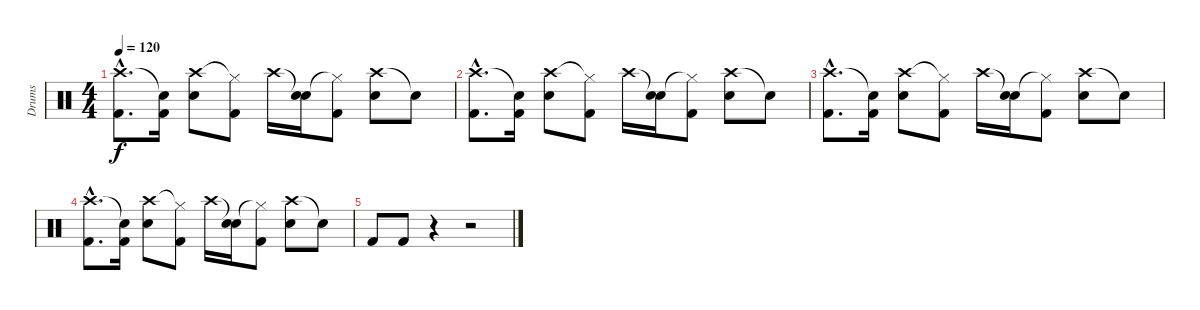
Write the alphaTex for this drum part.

\track ("Drums" "Drums") {instrument percussion}
\staff {score}
\articulation defaults
\ts (4 4)
\tempo 120
\clef neutral
\ks c
("Crash high (hit)"{hac} "Kick (hit) 2"{hac}).8{d dy f} ("Snare (hit)"{t} "Kick (hit) 2").16 ("Crash high (hit)" "Snare (hit) 2").8 ("Hi-Hat (closed)"{t} "Kick (hit) 2").8 "Crash high (hit)".16 ("Snare (hit)"{t} "Snare (hit) 2").16 ("Hi-Hat (closed)"{t} "Kick (hit) 2").8 ("Crash high (hit)" "Snare (hit) 2").8 "Snare (hit)"{t}.8 |
("Crash high (hit)"{hac} "Kick (hit) 2"{hac}).8{d} ("Snare (hit)"{t} "Kick (hit) 2").16 ("Crash high (hit)" "Snare (hit) 2").8 ("Hi-Hat (closed)"{t} "Kick (hit) 2").8 "Crash high (hit)".16 ("Snare (hit)"{t} "Snare (hit) 2").16 ("Hi-Hat (closed)"{t} "Kick (hit) 2").8 ("Crash high (hit)" "Snare (hit) 2").8 "Snare (hit)"{t}.8 |
("Crash high (hit)"{hac} "Kick (hit) 2"{hac}).8{d} ("Snare (hit)"{t} "Kick (hit) 2").16 ("Crash high (hit)" "Snare (hit) 2").8 ("Hi-Hat (closed)"{t} "Kick (hit) 2").8 "Crash high (hit)".16 ("Snare (hit)"{t} "Snare (hit) 2").16 ("Hi-Hat (closed)"{t} "Kick (hit) 2").8 ("Crash high (hit)" "Snare (hit) 2").8 "Snare (hit)"{t}.8 |
("Crash high (hit)"{hac} "Kick (hit) 2"{hac}).8{d} ("Snare (hit)"{t} "Kick (hit) 2").16 ("Crash high (hit)" "Snare (hit) 2").8 ("Hi-Hat (closed)"{t} "Kick (hit) 2").8 "Crash high (hit)".16 ("Snare (hit)"{t} "Snare (hit) 2").16 ("Hi-Hat (closed)"{t} "Kick (hit) 2").8 ("Crash high (hit)" "Snare (hit) 2").8 "Snare (hit)"{t}.8 |
"Kick (hit) 2".8 "Kick (hit) 2".8 r.4 r.2
